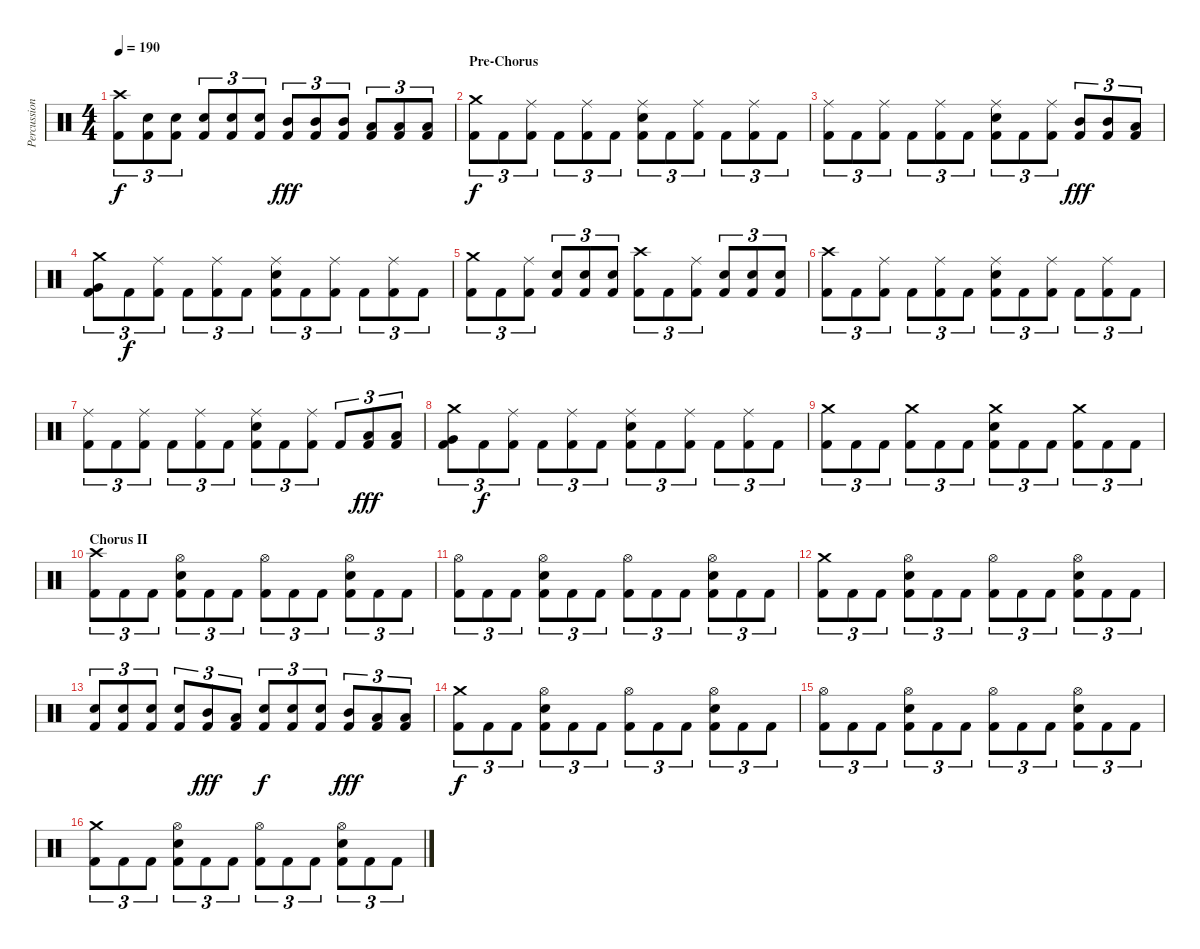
\track ("Percussion" "Percussion") {instrument percussion}
\staff {score}
\articulation defaults
\ts (4 4)
\tempo 190
\clef neutral
\ks c
("Kick (hit) 2" "Crash high (hit)").8{tu (3 2) dy f} ("Kick (hit) 2" "Electric Snare (hit)").8{tu (3 2)} ("Kick (hit) 2" "Electric Snare (hit)").8{tu (3 2)} ("Kick (hit) 2" "Electric Snare (hit)").8{tu (3 2)} ("Kick (hit) 2" "Electric Snare (hit)").8{tu (3 2)} ("Kick (hit) 2" "Electric Snare (hit)").8{tu (3 2)} ("Kick (hit) 2" "Mid Tom (hit)").8{tu (3 2) dy fff} ("Kick (hit) 2" "Mid Tom (hit)").8{tu (3 2)} ("Kick (hit) 2" "Mid Tom (hit)").8{tu (3 2)} ("Kick (hit) 2" "Low Tom (hit)").8{tu (3 2)} ("Kick (hit) 2" "Low Tom (hit)").8{tu (3 2)} ("Kick (hit) 2" "Low Tom (hit)").8{tu (3 2)} |
\section ("" "Pre-Chorus")
("Kick (hit) 2" "Crash medium (hit)").8{tu (3 2) dy f} "Kick (hit) 2".8{tu (3 2)} ("Kick (hit) 2" "Ride (middle)").8{tu (3 2)} "Kick (hit) 2".8{tu (3 2)} ("Kick (hit) 2" "Ride (middle)").8{tu (3 2)} "Kick (hit) 2".8{tu (3 2)} ("Kick (hit) 2" "Electric Snare (hit)" "Ride (middle)").8{tu (3 2)} "Kick (hit) 2".8{tu (3 2)} ("Kick (hit) 2" "Ride (middle)").8{tu (3 2)} "Kick (hit) 2".8{tu (3 2)} ("Kick (hit) 2" "Ride (middle)").8{tu (3 2)} "Kick (hit) 2".8{tu (3 2)} |
("Kick (hit) 2" "Ride (middle)").8{tu (3 2)} "Kick (hit) 2".8{tu (3 2)} ("Kick (hit) 2" "Ride (middle)").8{tu (3 2)} "Kick (hit) 2".8{tu (3 2)} ("Kick (hit) 2" "Ride (middle)").8{tu (3 2)} "Kick (hit) 2".8{tu (3 2)} ("Kick (hit) 2" "Electric Snare (hit)" "Ride (middle)").8{tu (3 2)} "Kick (hit) 2".8{tu (3 2)} ("Kick (hit) 2" "Ride (middle)").8{tu (3 2)} ("Kick (hit) 2" "Mid Tom (hit)").8{tu (3 2) dy fff} ("Kick (hit) 2" "Mid Tom (hit)").8{tu (3 2)} ("Kick (hit) 2" "Low Tom (hit)").8{tu (3 2)} |
("Kick (hit) 2" "Very Low Tom (hit)" "Crash medium (hit)").8{tu (3 2)} "Kick (hit) 2".8{tu (3 2) dy f} ("Kick (hit) 2" "Ride (middle)").8{tu (3 2)} "Kick (hit) 2".8{tu (3 2)} ("Kick (hit) 2" "Ride (middle)").8{tu (3 2)} "Kick (hit) 2".8{tu (3 2)} ("Kick (hit) 2" "Electric Snare (hit)" "Ride (middle)").8{tu (3 2)} "Kick (hit) 2".8{tu (3 2)} ("Kick (hit) 2" "Ride (middle)").8{tu (3 2)} "Kick (hit) 2".8{tu (3 2)} ("Kick (hit) 2" "Ride (middle)").8{tu (3 2)} "Kick (hit) 2".8{tu (3 2)} |
("Kick (hit) 2" "Crash medium (hit)").8{tu (3 2)} "Kick (hit) 2".8{tu (3 2)} ("Kick (hit) 2" "Ride (middle)").8{tu (3 2)} ("Kick (hit) 2" "Electric Snare (hit)").8{tu (3 2)} ("Kick (hit) 2" "Electric Snare (hit)").8{tu (3 2)} ("Kick (hit) 2" "Electric Snare (hit)").8{tu (3 2)} ("Kick (hit) 2" "Crash high (hit)").8{tu (3 2)} "Kick (hit) 2".8{tu (3 2)} ("Kick (hit) 2" "Ride (middle)").8{tu (3 2)} ("Kick (hit) 2" "Electric Snare (hit)").8{tu (3 2)} ("Kick (hit) 2" "Electric Snare (hit)").8{tu (3 2)} ("Kick (hit) 2" "Electric Snare (hit)").8{tu (3 2)} |
("Kick (hit) 2" "Crash high (hit)").8{tu (3 2)} "Kick (hit) 2".8{tu (3 2)} ("Kick (hit) 2" "Ride (middle)").8{tu (3 2)} "Kick (hit) 2".8{tu (3 2)} ("Kick (hit) 2" "Ride (middle)").8{tu (3 2)} "Kick (hit) 2".8{tu (3 2)} ("Kick (hit) 2" "Electric Snare (hit)" "Ride (middle)").8{tu (3 2)} "Kick (hit) 2".8{tu (3 2)} ("Kick (hit) 2" "Ride (middle)").8{tu (3 2)} "Kick (hit) 2".8{tu (3 2)} ("Kick (hit) 2" "Ride (middle)").8{tu (3 2)} "Kick (hit) 2".8{tu (3 2)} |
("Kick (hit) 2" "Ride (middle)").8{tu (3 2)} "Kick (hit) 2".8{tu (3 2)} ("Kick (hit) 2" "Ride (middle)").8{tu (3 2)} "Kick (hit) 2".8{tu (3 2)} ("Kick (hit) 2" "Ride (middle)").8{tu (3 2)} "Kick (hit) 2".8{tu (3 2)} ("Kick (hit) 2" "Electric Snare (hit)" "Ride (middle)").8{tu (3 2)} "Kick (hit) 2".8{tu (3 2)} ("Kick (hit) 2" "Ride (middle)").8{tu (3 2)} "Kick (hit) 2".8{tu (3 2)} ("Kick (hit) 2" "Low Tom (hit)").8{tu (3 2) dy fff} ("Kick (hit) 2" "Low Tom (hit)").8{tu (3 2)} |
("Kick (hit) 2" "Very Low Tom (hit)" "Crash medium (hit)").8{tu (3 2)} "Kick (hit) 2".8{tu (3 2) dy f} ("Kick (hit) 2" "Ride (middle)").8{tu (3 2)} "Kick (hit) 2".8{tu (3 2)} ("Kick (hit) 2" "Ride (middle)").8{tu (3 2)} "Kick (hit) 2".8{tu (3 2)} ("Kick (hit) 2" "Electric Snare (hit)" "Ride (middle)").8{tu (3 2)} "Kick (hit) 2".8{tu (3 2)} ("Kick (hit) 2" "Ride (middle)").8{tu (3 2)} "Kick (hit) 2".8{tu (3 2)} ("Kick (hit) 2" "Ride (middle)").8{tu (3 2)} "Kick (hit) 2".8{tu (3 2)} |
("Kick (hit) 2" "Crash medium (hit)").8{tu (3 2)} "Kick (hit) 2".8{tu (3 2)} "Kick (hit) 2".8{tu (3 2)} ("Kick (hit) 2" "Crash medium (hit)").8{tu (3 2)} "Kick (hit) 2".8{tu (3 2)} "Kick (hit) 2".8{tu (3 2)} ("Kick (hit) 2" "Electric Snare (hit)" "Crash medium (hit)").8{tu (3 2)} "Kick (hit) 2".8{tu (3 2)} "Kick (hit) 2".8{tu (3 2)} ("Kick (hit) 2" "Crash medium (hit)").8{tu (3 2)} "Kick (hit) 2".8{tu (3 2)} "Kick (hit) 2".8{tu (3 2)} |
\section ("" "Chorus II")
("Kick (hit) 2" "Crash high (hit)").8{tu (3 2)} "Kick (hit) 2".8{tu (3 2)} "Kick (hit) 2".8{tu (3 2)} ("Kick (hit) 2" "Electric Snare (hit)" "Hi-Hat (open)").8{tu (3 2)} "Kick (hit) 2".8{tu (3 2)} "Kick (hit) 2".8{tu (3 2)} ("Kick (hit) 2" "Hi-Hat (open)").8{tu (3 2)} "Kick (hit) 2".8{tu (3 2)} "Kick (hit) 2".8{tu (3 2)} ("Kick (hit) 2" "Electric Snare (hit)" "Hi-Hat (open)").8{tu (3 2)} "Kick (hit) 2".8{tu (3 2)} "Kick (hit) 2".8{tu (3 2)} |
("Kick (hit) 2" "Hi-Hat (open)").8{tu (3 2)} "Kick (hit) 2".8{tu (3 2)} "Kick (hit) 2".8{tu (3 2)} ("Kick (hit) 2" "Electric Snare (hit)" "Hi-Hat (open)").8{tu (3 2)} "Kick (hit) 2".8{tu (3 2)} "Kick (hit) 2".8{tu (3 2)} ("Kick (hit) 2" "Hi-Hat (open)").8{tu (3 2)} "Kick (hit) 2".8{tu (3 2)} "Kick (hit) 2".8{tu (3 2)} ("Kick (hit) 2" "Electric Snare (hit)" "Hi-Hat (open)").8{tu (3 2)} "Kick (hit) 2".8{tu (3 2)} "Kick (hit) 2".8{tu (3 2)} |
("Kick (hit) 2" "Crash medium (hit)").8{tu (3 2)} "Kick (hit) 2".8{tu (3 2)} "Kick (hit) 2".8{tu (3 2)} ("Kick (hit) 2" "Electric Snare (hit)" "Hi-Hat (open)").8{tu (3 2)} "Kick (hit) 2".8{tu (3 2)} "Kick (hit) 2".8{tu (3 2)} ("Kick (hit) 2" "Hi-Hat (open)").8{tu (3 2)} "Kick (hit) 2".8{tu (3 2)} "Kick (hit) 2".8{tu (3 2)} ("Kick (hit) 2" "Electric Snare (hit)" "Hi-Hat (open)").8{tu (3 2)} "Kick (hit) 2".8{tu (3 2)} "Kick (hit) 2".8{tu (3 2)} |
("Kick (hit) 2" "Electric Snare (hit)").8{tu (3 2)} ("Kick (hit) 2" "Electric Snare (hit)").8{tu (3 2)} ("Kick (hit) 2" "Electric Snare (hit)").8{tu (3 2)} ("Kick (hit) 2" "Electric Snare (hit)").8{tu (3 2)} ("Kick (hit) 2" "Mid Tom (hit)").8{tu (3 2) dy fff} ("Kick (hit) 2" "Low Tom (hit)").8{tu (3 2)} ("Kick (hit) 2" "Electric Snare (hit)").8{tu (3 2) dy f} ("Kick (hit) 2" "Electric Snare (hit)").8{tu (3 2)} ("Kick (hit) 2" "Electric Snare (hit)").8{tu (3 2)} ("Kick (hit) 2" "Mid Tom (hit)").8{tu (3 2) dy fff} ("Kick (hit) 2" "Low Tom (hit)").8{tu (3 2)} ("Kick (hit) 2" "Low Tom (hit)").8{tu (3 2)} |
("Kick (hit) 2" "Crash medium (hit)").8{tu (3 2) dy f} "Kick (hit) 2".8{tu (3 2)} "Kick (hit) 2".8{tu (3 2)} ("Kick (hit) 2" "Electric Snare (hit)" "Hi-Hat (open)").8{tu (3 2)} "Kick (hit) 2".8{tu (3 2)} "Kick (hit) 2".8{tu (3 2)} ("Kick (hit) 2" "Hi-Hat (open)").8{tu (3 2)} "Kick (hit) 2".8{tu (3 2)} "Kick (hit) 2".8{tu (3 2)} ("Kick (hit) 2" "Electric Snare (hit)" "Hi-Hat (open)").8{tu (3 2)} "Kick (hit) 2".8{tu (3 2)} "Kick (hit) 2".8{tu (3 2)} |
("Kick (hit) 2" "Hi-Hat (open)").8{tu (3 2)} "Kick (hit) 2".8{tu (3 2)} "Kick (hit) 2".8{tu (3 2)} ("Kick (hit) 2" "Electric Snare (hit)" "Hi-Hat (open)").8{tu (3 2)} "Kick (hit) 2".8{tu (3 2)} "Kick (hit) 2".8{tu (3 2)} ("Kick (hit) 2" "Hi-Hat (open)").8{tu (3 2)} "Kick (hit) 2".8{tu (3 2)} "Kick (hit) 2".8{tu (3 2)} ("Kick (hit) 2" "Electric Snare (hit)" "Hi-Hat (open)").8{tu (3 2)} "Kick (hit) 2".8{tu (3 2)} "Kick (hit) 2".8{tu (3 2)} |
("Kick (hit) 2" "Crash medium (hit)").8{tu (3 2)} "Kick (hit) 2".8{tu (3 2)} "Kick (hit) 2".8{tu (3 2)} ("Kick (hit) 2" "Electric Snare (hit)" "Hi-Hat (open)").8{tu (3 2)} "Kick (hit) 2".8{tu (3 2)} "Kick (hit) 2".8{tu (3 2)} ("Kick (hit) 2" "Hi-Hat (open)").8{tu (3 2)} "Kick (hit) 2".8{tu (3 2)} "Kick (hit) 2".8{tu (3 2)} ("Kick (hit) 2" "Electric Snare (hit)" "Hi-Hat (open)").8{tu (3 2)} "Kick (hit) 2".8{tu (3 2)} "Kick (hit) 2".8{tu (3 2)}
